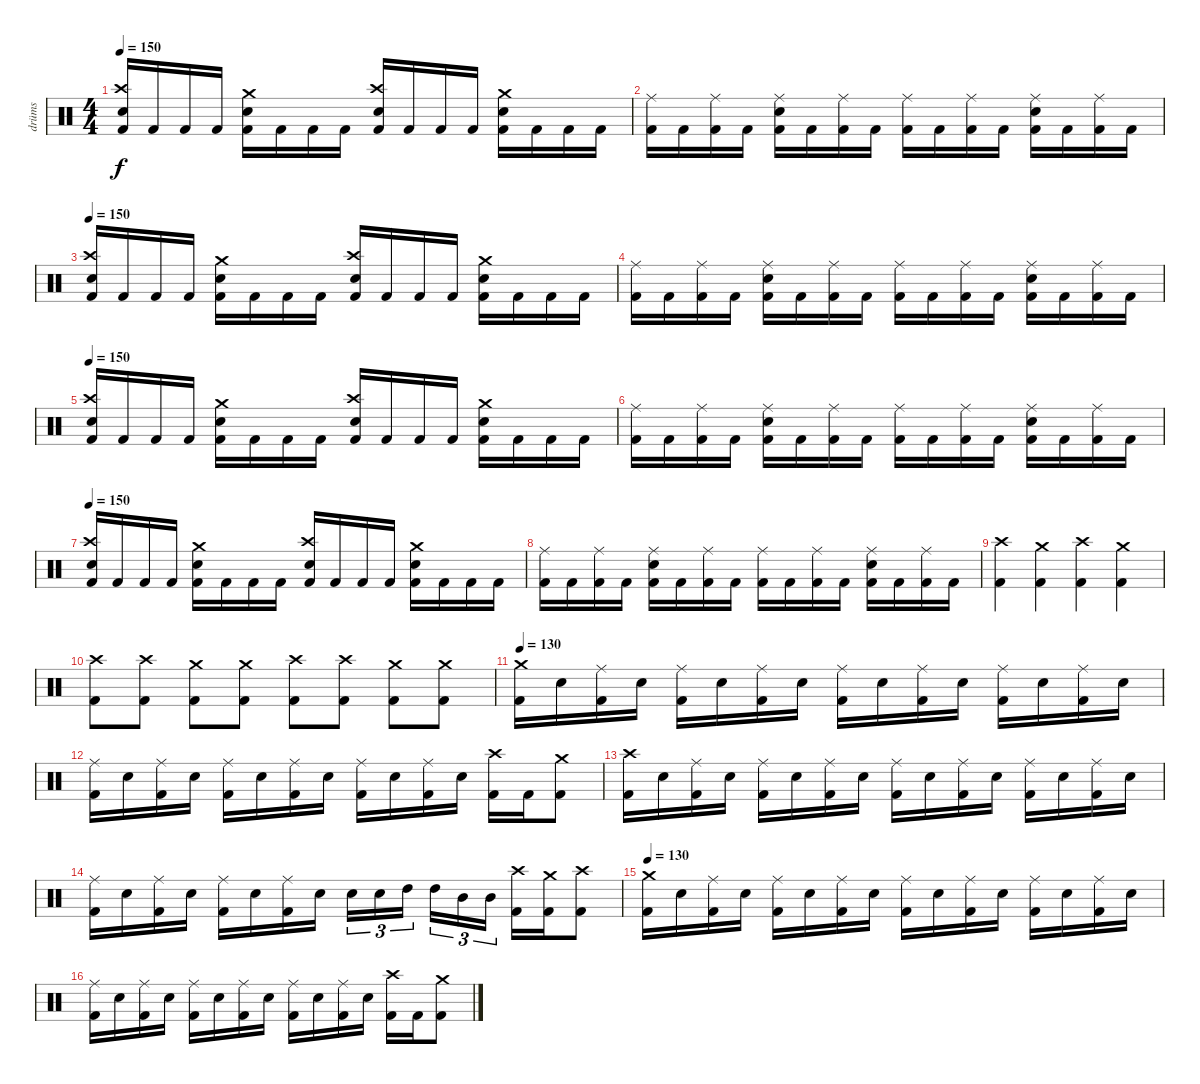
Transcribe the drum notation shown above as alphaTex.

\track ("drüms" "drüms") {instrument percussion}
\staff {score}
\articulation defaults
\ts (4 4)
\tempo 150
\clef neutral
\ks c
("Electric Snare (hit)" "Crash high (hit)" "Kick (hit) 2").16{dy f} "Kick (hit) 2".16 "Kick (hit) 2".16 "Kick (hit) 2".16 ("Electric Snare (hit)" "Crash medium (hit)" "Kick (hit) 2").16 "Kick (hit) 2".16 "Kick (hit) 2".16 "Kick (hit) 2".16 ("Electric Snare (hit)" "Crash high (hit)" "Kick (hit) 2").16 "Kick (hit) 2".16 "Kick (hit) 2".16 "Kick (hit) 2".16 ("Electric Snare (hit)" "Crash medium (hit)" "Kick (hit) 2").16 "Kick (hit) 2".16 "Kick (hit) 2".16 "Kick (hit) 2".16 |
("Ride (middle)" "Kick (hit) 2").16 "Kick (hit) 2".16 ("Ride (middle)" "Kick (hit) 2").16 "Kick (hit) 2".16 ("Ride (middle)" "Electric Snare (hit)" "Kick (hit) 2").16 "Kick (hit) 2".16 ("Ride (middle)" "Kick (hit) 2").16 "Kick (hit) 2".16 ("Ride (middle)" "Kick (hit) 2").16 "Kick (hit) 2".16 ("Ride (middle)" "Kick (hit) 2").16 "Kick (hit) 2".16 ("Ride (middle)" "Electric Snare (hit)" "Kick (hit) 2").16 "Kick (hit) 2".16 ("Ride (middle)" "Kick (hit) 2").16 "Kick (hit) 2".16 |
\tempo 150
("Electric Snare (hit)" "Crash high (hit)" "Kick (hit) 2").16 "Kick (hit) 2".16 "Kick (hit) 2".16 "Kick (hit) 2".16 ("Electric Snare (hit)" "Crash medium (hit)" "Kick (hit) 2").16 "Kick (hit) 2".16 "Kick (hit) 2".16 "Kick (hit) 2".16 ("Electric Snare (hit)" "Crash high (hit)" "Kick (hit) 2").16 "Kick (hit) 2".16 "Kick (hit) 2".16 "Kick (hit) 2".16 ("Electric Snare (hit)" "Crash medium (hit)" "Kick (hit) 2").16 "Kick (hit) 2".16 "Kick (hit) 2".16 "Kick (hit) 2".16 |
("Ride (middle)" "Kick (hit) 2").16 "Kick (hit) 2".16 ("Ride (middle)" "Kick (hit) 2").16 "Kick (hit) 2".16 ("Ride (middle)" "Electric Snare (hit)" "Kick (hit) 2").16 "Kick (hit) 2".16 ("Ride (middle)" "Kick (hit) 2").16 "Kick (hit) 2".16 ("Ride (middle)" "Kick (hit) 2").16 "Kick (hit) 2".16 ("Ride (middle)" "Kick (hit) 2").16 "Kick (hit) 2".16 ("Ride (middle)" "Electric Snare (hit)" "Kick (hit) 2").16 "Kick (hit) 2".16 ("Ride (middle)" "Kick (hit) 2").16 "Kick (hit) 2".16 |
\tempo 150
("Electric Snare (hit)" "Crash high (hit)" "Kick (hit) 2").16 "Kick (hit) 2".16 "Kick (hit) 2".16 "Kick (hit) 2".16 ("Electric Snare (hit)" "Crash medium (hit)" "Kick (hit) 2").16 "Kick (hit) 2".16 "Kick (hit) 2".16 "Kick (hit) 2".16 ("Electric Snare (hit)" "Crash high (hit)" "Kick (hit) 2").16 "Kick (hit) 2".16 "Kick (hit) 2".16 "Kick (hit) 2".16 ("Electric Snare (hit)" "Crash medium (hit)" "Kick (hit) 2").16 "Kick (hit) 2".16 "Kick (hit) 2".16 "Kick (hit) 2".16 |
("Ride (middle)" "Kick (hit) 2").16 "Kick (hit) 2".16 ("Ride (middle)" "Kick (hit) 2").16 "Kick (hit) 2".16 ("Ride (middle)" "Electric Snare (hit)" "Kick (hit) 2").16 "Kick (hit) 2".16 ("Ride (middle)" "Kick (hit) 2").16 "Kick (hit) 2".16 ("Ride (middle)" "Kick (hit) 2").16 "Kick (hit) 2".16 ("Ride (middle)" "Kick (hit) 2").16 "Kick (hit) 2".16 ("Ride (middle)" "Electric Snare (hit)" "Kick (hit) 2").16 "Kick (hit) 2".16 ("Ride (middle)" "Kick (hit) 2").16 "Kick (hit) 2".16 |
\tempo 150
("Electric Snare (hit)" "Crash high (hit)" "Kick (hit) 2").16 "Kick (hit) 2".16 "Kick (hit) 2".16 "Kick (hit) 2".16 ("Electric Snare (hit)" "Crash medium (hit)" "Kick (hit) 2").16 "Kick (hit) 2".16 "Kick (hit) 2".16 "Kick (hit) 2".16 ("Electric Snare (hit)" "Crash high (hit)" "Kick (hit) 2").16 "Kick (hit) 2".16 "Kick (hit) 2".16 "Kick (hit) 2".16 ("Electric Snare (hit)" "Crash medium (hit)" "Kick (hit) 2").16 "Kick (hit) 2".16 "Kick (hit) 2".16 "Kick (hit) 2".16 |
("Ride (middle)" "Kick (hit) 2").16 "Kick (hit) 2".16 ("Ride (middle)" "Kick (hit) 2").16 "Kick (hit) 2".16 ("Ride (middle)" "Electric Snare (hit)" "Kick (hit) 2").16 "Kick (hit) 2".16 ("Ride (middle)" "Kick (hit) 2").16 "Kick (hit) 2".16 ("Ride (middle)" "Kick (hit) 2").16 "Kick (hit) 2".16 ("Ride (middle)" "Kick (hit) 2").16 "Kick (hit) 2".16 ("Ride (middle)" "Electric Snare (hit)" "Kick (hit) 2").16 "Kick (hit) 2".16 ("Ride (middle)" "Kick (hit) 2").16 "Kick (hit) 2".16 |
("Crash high (hit)" "Kick (hit) 2").4 ("Crash medium (hit)" "Kick (hit) 2").4 ("Crash high (hit)" "Kick (hit) 2").4 ("Crash medium (hit)" "Kick (hit) 2").4 |
("Crash high (hit)" "Kick (hit) 2").8 ("Crash high (hit)" "Kick (hit) 2").8 ("Crash medium (hit)" "Kick (hit) 2").8 ("Crash medium (hit)" "Kick (hit) 2").8 ("Crash high (hit)" "Kick (hit) 2").8 ("Crash high (hit)" "Kick (hit) 2").8 ("Crash medium (hit)" "Kick (hit) 2").8 ("Crash medium (hit)" "Kick (hit) 2").8 |
\tempo 130
("Kick (hit) 2" "Crash medium (hit)").16 "Electric Snare (hit)".16 ("Kick (hit) 2" "Ride (middle)").16 "Electric Snare (hit)".16 ("Kick (hit) 2" "Ride (middle)").16 "Electric Snare (hit)".16 ("Kick (hit) 2" "Ride (middle)").16 "Electric Snare (hit)".16 ("Kick (hit) 2" "Ride (middle)").16 "Electric Snare (hit)".16 ("Kick (hit) 2" "Ride (middle)").16 "Electric Snare (hit)".16 ("Kick (hit) 2" "Ride (middle)").16 "Electric Snare (hit)".16 ("Kick (hit) 2" "Ride (middle)").16 "Electric Snare (hit)".16 |
("Kick (hit) 2" "Ride (middle)").16 "Electric Snare (hit)".16 ("Kick (hit) 2" "Ride (middle)").16 "Electric Snare (hit)".16 ("Kick (hit) 2" "Ride (middle)").16 "Electric Snare (hit)".16 ("Kick (hit) 2" "Ride (middle)").16 "Electric Snare (hit)".16 ("Kick (hit) 2" "Ride (middle)").16 "Electric Snare (hit)".16 ("Kick (hit) 2" "Ride (middle)").16 "Electric Snare (hit)".16 ("Kick (hit) 2" "Crash high (hit)").16 "Kick (hit) 2".16 ("Kick (hit) 2" "Crash medium (hit)").8 |
("Kick (hit) 2" "Crash high (hit)").16 "Electric Snare (hit)".16 ("Kick (hit) 2" "Ride (middle)").16 "Electric Snare (hit)".16 ("Kick (hit) 2" "Ride (middle)").16 "Electric Snare (hit)".16 ("Kick (hit) 2" "Ride (middle)").16 "Electric Snare (hit)".16 ("Kick (hit) 2" "Ride (middle)").16 "Electric Snare (hit)".16 ("Kick (hit) 2" "Ride (middle)").16 "Electric Snare (hit)".16 ("Kick (hit) 2" "Ride (middle)").16 "Electric Snare (hit)".16 ("Kick (hit) 2" "Ride (middle)").16 "Electric Snare (hit)".16 |
("Kick (hit) 2" "Ride (middle)").16 "Electric Snare (hit)".16 ("Kick (hit) 2" "Ride (middle)").16 "Electric Snare (hit)".16 ("Kick (hit) 2" "Ride (middle)").16 "Electric Snare (hit)".16 ("Kick (hit) 2" "Ride (middle)").16 "Electric Snare (hit)".16 "Electric Snare (hit)".16{tu (3 2)} "Electric Snare (hit)".16{tu (3 2)} "High Tom (hit)".16{tu (3 2)} "High Tom (hit)".16{tu (3 2)} "Mid Tom (hit)".16{tu (3 2)} "Mid Tom (hit)".16{tu (3 2)} ("Kick (hit) 2" "Crash high (hit)").16 ("Kick (hit) 2" "Crash medium (hit)").16 ("Kick (hit) 2" "Crash high (hit)").8 |
\tempo 130
("Kick (hit) 2" "Crash medium (hit)").16 "Electric Snare (hit)".16 ("Kick (hit) 2" "Ride (middle)").16 "Electric Snare (hit)".16 ("Kick (hit) 2" "Ride (middle)").16 "Electric Snare (hit)".16 ("Kick (hit) 2" "Ride (middle)").16 "Electric Snare (hit)".16 ("Kick (hit) 2" "Ride (middle)").16 "Electric Snare (hit)".16 ("Kick (hit) 2" "Ride (middle)").16 "Electric Snare (hit)".16 ("Kick (hit) 2" "Ride (middle)").16 "Electric Snare (hit)".16 ("Kick (hit) 2" "Ride (middle)").16 "Electric Snare (hit)".16 |
("Kick (hit) 2" "Ride (middle)").16 "Electric Snare (hit)".16 ("Kick (hit) 2" "Ride (middle)").16 "Electric Snare (hit)".16 ("Kick (hit) 2" "Ride (middle)").16 "Electric Snare (hit)".16 ("Kick (hit) 2" "Ride (middle)").16 "Electric Snare (hit)".16 ("Kick (hit) 2" "Ride (middle)").16 "Electric Snare (hit)".16 ("Kick (hit) 2" "Ride (middle)").16 "Electric Snare (hit)".16 ("Kick (hit) 2" "Crash high (hit)").16 "Kick (hit) 2".16 ("Kick (hit) 2" "Crash medium (hit)").8
